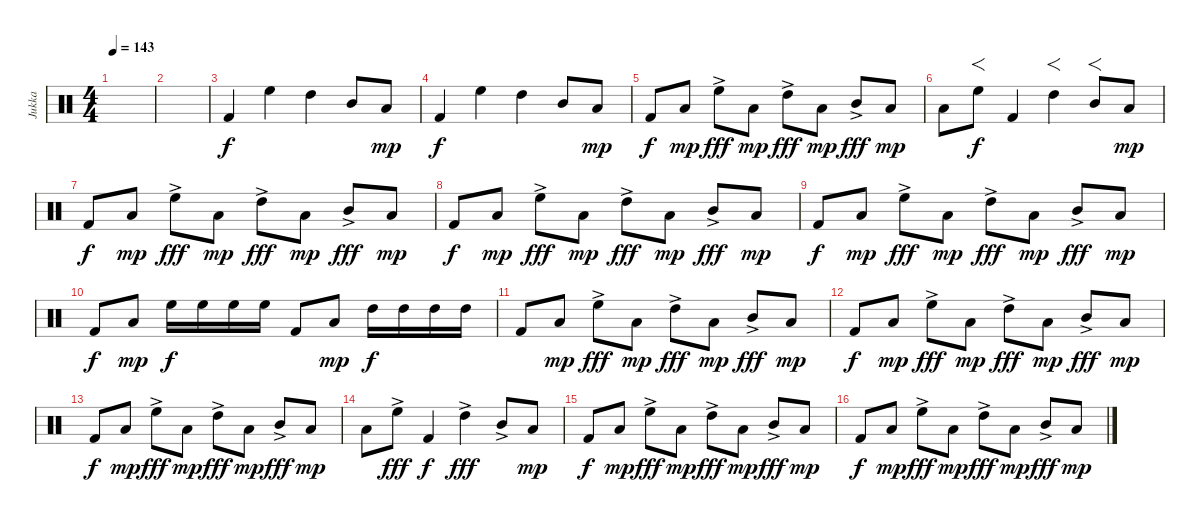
\track ("Jukka" "Jukka") {instrument percussion}
\staff {score}
\articulation defaults
\ts (4 4)
\tempo 143
\clef neutral
\ks c
|
|
"Kick (hit) 2".4 "High Floor Tom (hit)".4 "High Tom (hit)".4 "Mid Tom (hit)".8 "Low Tom (hit)".8{dy mp} |
"Kick (hit) 2".4{dy f} "High Floor Tom (hit)".4 "High Tom (hit)".4 "Mid Tom (hit)".8 "Low Tom (hit)".8{dy mp} |
"Kick (hit) 2".8{dy f} "Low Tom (hit)".8{dy mp} "High Floor Tom (hit)"{ac}.8{dy fff} "Low Tom (hit)".8{dy mp} "High Tom (hit)"{ac}.8{dy fff} "Low Tom (hit)".8{dy mp} "Mid Tom (hit)"{ac}.8{dy fff} "Low Tom (hit)".8{dy mp} |
"Low Tom (hit)".8 "High Floor Tom (hit)".8{f dy f} "Kick (hit) 2".4 "High Tom (hit)".4{f} "Mid Tom (hit)".8{f} "Low Tom (hit)".8{dy mp} |
"Kick (hit) 2".8{dy f} "Low Tom (hit)".8{dy mp} "High Floor Tom (hit)"{ac}.8{dy fff} "Low Tom (hit)".8{dy mp} "High Tom (hit)"{ac}.8{dy fff} "Low Tom (hit)".8{dy mp} "Mid Tom (hit)"{ac}.8{dy fff} "Low Tom (hit)".8{dy mp} |
"Kick (hit) 2".8{dy f} "Low Tom (hit)".8{dy mp} "High Floor Tom (hit)"{ac}.8{dy fff} "Low Tom (hit)".8{dy mp} "High Tom (hit)"{ac}.8{dy fff} "Low Tom (hit)".8{dy mp} "Mid Tom (hit)"{ac}.8{dy fff} "Low Tom (hit)".8{dy mp} |
"Kick (hit) 2".8{dy f} "Low Tom (hit)".8{dy mp} "High Floor Tom (hit)"{ac}.8{dy fff} "Low Tom (hit)".8{dy mp} "High Tom (hit)"{ac}.8{dy fff} "Low Tom (hit)".8{dy mp} "Mid Tom (hit)"{ac}.8{dy fff} "Low Tom (hit)".8{dy mp} |
"Kick (hit) 2".8{dy f} "Low Tom (hit)".8{dy mp} "High Floor Tom (hit)".16{dy f} "High Floor Tom (hit)".16 "High Floor Tom (hit)".16 "High Floor Tom (hit)".16 "Kick (hit) 2".8 "Low Tom (hit)".8{dy mp} "High Tom (hit)".16{dy f} "High Tom (hit)".16 "High Tom (hit)".16 "High Tom (hit)".16 |
"Kick (hit) 2".8 "Low Tom (hit)".8{dy mp} "High Floor Tom (hit)"{ac}.8{dy fff} "Low Tom (hit)".8{dy mp} "High Tom (hit)"{ac}.8{dy fff} "Low Tom (hit)".8{dy mp} "Mid Tom (hit)"{ac}.8{dy fff} "Low Tom (hit)".8{dy mp} |
"Kick (hit) 2".8{dy f} "Low Tom (hit)".8{dy mp} "High Floor Tom (hit)"{ac}.8{dy fff} "Low Tom (hit)".8{dy mp} "High Tom (hit)"{ac}.8{dy fff} "Low Tom (hit)".8{dy mp} "Mid Tom (hit)"{ac}.8{dy fff} "Low Tom (hit)".8{dy mp} |
"Kick (hit) 2".8{dy f} "Low Tom (hit)".8{dy mp} "High Floor Tom (hit)"{ac}.8{dy fff} "Low Tom (hit)".8{dy mp} "High Tom (hit)"{ac}.8{dy fff} "Low Tom (hit)".8{dy mp} "Mid Tom (hit)"{ac}.8{dy fff} "Low Tom (hit)".8{dy mp} |
"Low Tom (hit)".8 "High Floor Tom (hit)"{ac}.8{dy fff} "Kick (hit) 2".4{dy f} "High Tom (hit)"{ac}.4{dy fff} "Mid Tom (hit)"{ac}.8 "Low Tom (hit)".8{dy mp} |
"Kick (hit) 2".8{dy f} "Low Tom (hit)".8{dy mp} "High Floor Tom (hit)"{ac}.8{dy fff} "Low Tom (hit)".8{dy mp} "High Tom (hit)"{ac}.8{dy fff} "Low Tom (hit)".8{dy mp} "Mid Tom (hit)"{ac}.8{dy fff} "Low Tom (hit)".8{dy mp} |
"Kick (hit) 2".8{dy f} "Low Tom (hit)".8{dy mp} "High Floor Tom (hit)"{ac}.8{dy fff} "Low Tom (hit)".8{dy mp} "High Tom (hit)"{ac}.8{dy fff} "Low Tom (hit)".8{dy mp} "Mid Tom (hit)"{ac}.8{dy fff} "Low Tom (hit)".8{dy mp}
